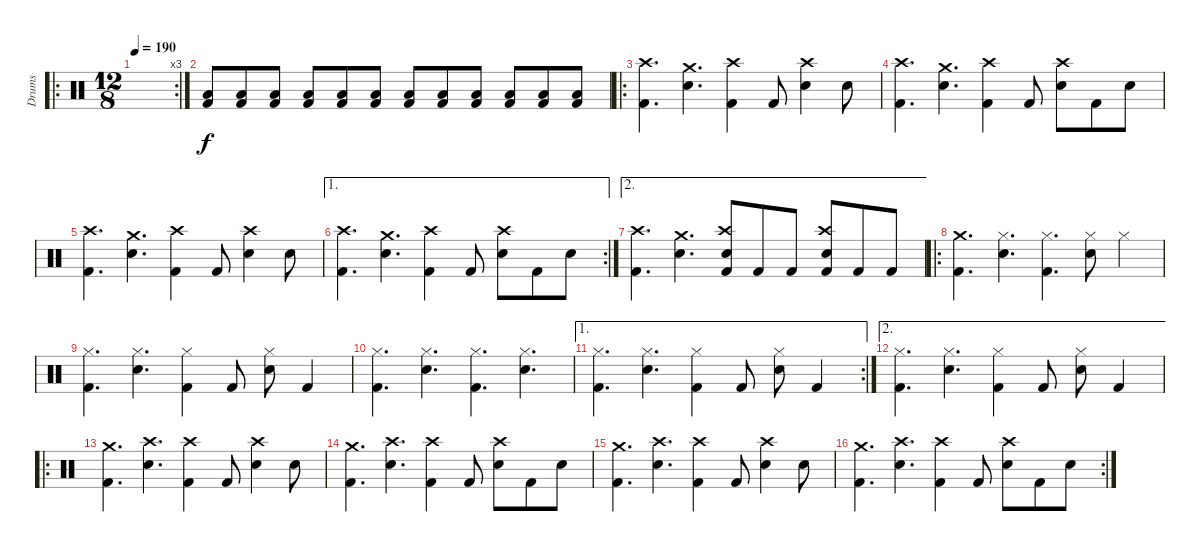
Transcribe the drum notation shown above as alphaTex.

\track ("Drums" "Drums") {instrument percussion}
\staff {score}
\articulation defaults
\ro
\rc 3
\ts (12 8)
\tempo 190
\clef neutral
\ks c
|
("Low Tom (hit)" "Kick (hit) 2").8 ("Low Floor Tom (hit)" "Kick (hit) 2").8 ("Low Floor Tom (hit)" "Kick (hit) 2").8 ("Low Tom (hit)" "Kick (hit) 2").8 ("Low Floor Tom (hit)" "Kick (hit) 2").8 ("Low Floor Tom (hit)" "Kick (hit) 2").8 ("Low Tom (hit)" "Kick (hit) 2").8 ("Low Floor Tom (hit)" "Kick (hit) 2").8 ("Low Floor Tom (hit)" "Kick (hit) 2").8 ("Low Tom (hit)" "Kick (hit) 2").8 ("Low Floor Tom (hit)" "Kick (hit) 2").8 ("Low Floor Tom (hit)" "Kick (hit) 2").8 |
\ro
("Crash high (hit)" "Kick (hit) 2").4{d} ("Crash medium (hit)" "Electric Snare (hit)").4{d} ("Crash high (hit)" "Kick (hit) 2").4 "Kick (hit) 2".8 ("Crash high (hit)" "Electric Snare (hit)").4 "Electric Snare (hit)".8 |
("Crash high (hit)" "Kick (hit) 2").4{d} ("Crash medium (hit)" "Electric Snare (hit)").4{d} ("Crash high (hit)" "Kick (hit) 2").4 "Kick (hit) 2".8 ("Crash high (hit)" "Electric Snare (hit)").8 "Kick (hit) 2".8 "Electric Snare (hit)".8 |
("Crash high (hit)" "Kick (hit) 2").4{d} ("Crash medium (hit)" "Electric Snare (hit)").4{d} ("Crash high (hit)" "Kick (hit) 2").4 "Kick (hit) 2".8 ("Crash high (hit)" "Electric Snare (hit)").4 "Electric Snare (hit)".8 |
\ae 1
\rc 2
("Crash high (hit)" "Kick (hit) 2").4{d} ("Crash medium (hit)" "Electric Snare (hit)").4{d} ("Crash high (hit)" "Kick (hit) 2").4 "Kick (hit) 2".8 ("Crash high (hit)" "Electric Snare (hit)").8 "Kick (hit) 2".8 "Electric Snare (hit)".8 |
\ae 2
("Crash high (hit)" "Kick (hit) 2").4{d} ("Crash medium (hit)" "Electric Snare (hit)").4{d} ("Crash high (hit)" "Electric Snare (hit)" "Kick (hit) 2").8 "Kick (hit) 2".8 "Kick (hit) 2".8 ("Crash high (hit)" "Electric Snare (hit)" "Kick (hit) 2").8 "Kick (hit) 2".8 "Kick (hit) 2".8 |
\ro
("Crash medium (hit)" "Kick (hit) 2").4{d} ("Hi-Hat (closed)" "Electric Snare (hit)").4{d} ("Hi-Hat (closed)" "Kick (hit) 2").4{d} ("Hi-Hat (closed)" "Electric Snare (hit)").8 "Hi-Hat (closed)".4 |
("Hi-Hat (closed)" "Kick (hit) 2").4{d} ("Hi-Hat (closed)" "Electric Snare (hit)").4{d} ("Hi-Hat (closed)" "Kick (hit) 2").4 "Kick (hit) 2".8 ("Hi-Hat (closed)" "Electric Snare (hit)").8 "Kick (hit) 2".4 |
("Hi-Hat (closed)" "Kick (hit) 2").4{d} ("Hi-Hat (closed)" "Electric Snare (hit)").4{d} ("Hi-Hat (closed)" "Kick (hit) 2").4{d} ("Hi-Hat (closed)" "Electric Snare (hit)").4{d} |
\ae 1
\rc 2
("Hi-Hat (closed)" "Kick (hit) 2").4{d} ("Hi-Hat (closed)" "Electric Snare (hit)").4{d} ("Hi-Hat (closed)" "Kick (hit) 2").4 "Kick (hit) 2".8 ("Hi-Hat (closed)" "Electric Snare (hit)").8 "Kick (hit) 2".4 |
\ae 2
("Hi-Hat (closed)" "Kick (hit) 2").4{d} ("Hi-Hat (closed)" "Electric Snare (hit)").4{d} ("Hi-Hat (closed)" "Kick (hit) 2").4 "Kick (hit) 2".8 ("Hi-Hat (closed)" "Electric Snare (hit)").8 "Kick (hit) 2".4 |
\ro
("Crash medium (hit)" "Kick (hit) 2").4{d} ("Crash high (hit)" "Electric Snare (hit)").4{d} ("Crash high (hit)" "Kick (hit) 2").4 "Kick (hit) 2".8 ("Crash high (hit)" "Electric Snare (hit)").4 "Electric Snare (hit)".8 |
("Crash medium (hit)" "Kick (hit) 2").4{d} ("Crash high (hit)" "Electric Snare (hit)").4{d} ("Crash high (hit)" "Kick (hit) 2").4 "Kick (hit) 2".8 ("Crash high (hit)" "Electric Snare (hit)").8 "Kick (hit) 2".8 "Electric Snare (hit)".8 |
("Crash medium (hit)" "Kick (hit) 2").4{d} ("Crash high (hit)" "Electric Snare (hit)").4{d} ("Crash high (hit)" "Kick (hit) 2").4 "Kick (hit) 2".8 ("Crash high (hit)" "Electric Snare (hit)").4 "Electric Snare (hit)".8 |
\rc 2
("Crash medium (hit)" "Kick (hit) 2").4{d} ("Crash high (hit)" "Electric Snare (hit)").4{d} ("Crash high (hit)" "Kick (hit) 2").4 "Kick (hit) 2".8 ("Crash high (hit)" "Electric Snare (hit)").8 "Kick (hit) 2".8 "Electric Snare (hit)".8
